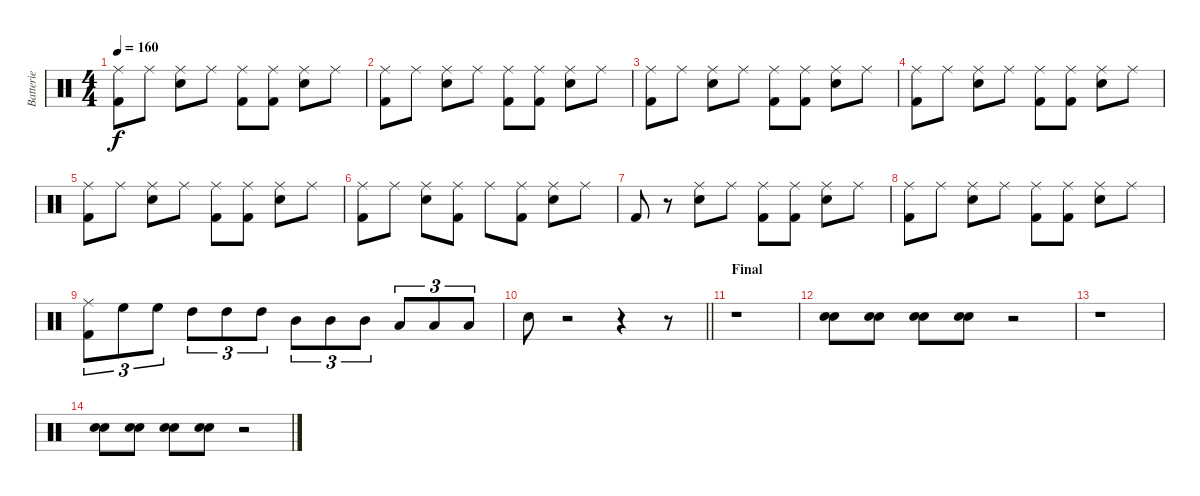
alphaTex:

\track ("Batterie" "Batterie") {instrument percussion}
\staff {score}
\articulation defaults
\ts (4 4)
\tempo 160
\clef neutral
\ks c
("Kick (hit) 2" "Ride (middle)").8{dy f} "Ride (middle)".8 ("Snare (hit) 2" "Ride (middle)").8 "Ride (middle)".8 ("Kick (hit) 2" "Ride (middle)").8 ("Kick (hit) 2" "Ride (middle)").8 ("Snare (hit) 2" "Ride (middle)").8 "Ride (middle)".8 |
("Kick (hit) 2" "Ride (middle)").8 "Ride (middle)".8 ("Snare (hit) 2" "Ride (middle)").8 "Ride (middle)".8 ("Kick (hit) 2" "Ride (middle)").8 ("Kick (hit) 2" "Ride (middle)").8 ("Snare (hit) 2" "Ride (middle)").8 "Ride (middle)".8 |
("Kick (hit) 2" "Ride (middle)").8 "Ride (middle)".8 ("Snare (hit) 2" "Ride (middle)").8 "Ride (middle)".8 ("Kick (hit) 2" "Ride (middle)").8 ("Kick (hit) 2" "Ride (middle)").8 ("Snare (hit) 2" "Ride (middle)").8 "Ride (middle)".8 |
("Kick (hit) 2" "Ride (middle)").8 "Ride (middle)".8 ("Snare (hit) 2" "Ride (middle)").8 "Ride (middle)".8 ("Kick (hit) 2" "Ride (middle)").8 ("Kick (hit) 2" "Ride (middle)").8 ("Snare (hit) 2" "Ride (middle)").8 "Ride (middle)".8 |
("Kick (hit) 2" "Ride (middle)").8 "Ride (middle)".8 ("Snare (hit) 2" "Ride (middle)").8 "Ride (middle)".8 ("Kick (hit) 2" "Ride (middle)").8 ("Kick (hit) 2" "Ride (middle)").8 ("Snare (hit) 2" "Ride (middle)").8 "Ride (middle)".8 |
("Kick (hit) 2" "Ride (middle)").8 "Ride (middle)".8 ("Snare (hit) 2" "Ride (middle)").8 ("Kick (hit) 2" "Ride (middle)").8 "Ride (middle)".8 ("Kick (hit) 2" "Ride (middle)").8 ("Snare (hit) 2" "Ride (middle)").8 "Ride (middle)".8 |
"Kick (hit) 2".8 r.8 ("Snare (hit) 2" "Ride (middle)").8 "Ride (middle)".8 ("Kick (hit) 2" "Ride (middle)").8 ("Kick (hit) 2" "Ride (middle)").8 ("Snare (hit) 2" "Ride (middle)").8 "Ride (middle)".8 |
("Kick (hit) 2" "Ride (middle)").8 "Ride (middle)".8 ("Snare (hit) 2" "Ride (middle)").8 "Ride (middle)".8 ("Kick (hit) 2" "Ride (middle)").8 ("Kick (hit) 2" "Ride (middle)").8 ("Snare (hit) 2" "Ride (middle)").8 "Ride (middle)".8 |
("Kick (hit) 2" "Ride (middle)").8{tu (3 2)} "High Floor Tom (hit)".8{tu (3 2)} "High Floor Tom (hit)".8{tu (3 2)} "High Tom (hit)".8{tu (3 2)} "High Tom (hit)".8{tu (3 2)} "High Tom (hit)".8{tu (3 2)} "Mid Tom (hit)".8{tu (3 2)} "Mid Tom (hit)".8{tu (3 2)} "Mid Tom (hit)".8{tu (3 2)} "Low Tom (hit)".8{tu (3 2)} "Low Tom (hit)".8{tu (3 2)} "Low Tom (hit)".8{tu (3 2)} |
\barLineRight lightlight "Snare (hit) 2".8
r.2 r.4 r.8 |
\section ("" "Final")
r.1 |
("Snare (hit) 2" "Snare (hit) 2").8 ("Snare (hit) 2" "Snare (hit) 2").8 ("Snare (hit) 2" "Snare (hit) 2").8 ("Snare (hit) 2" "Snare (hit) 2").8 r.2 |
r.1 |
("Snare (hit) 2" "Snare (hit) 2").8 ("Snare (hit) 2" "Snare (hit) 2").8 ("Snare (hit) 2" "Snare (hit) 2").8 ("Snare (hit) 2" "Snare (hit) 2").8 r.2
